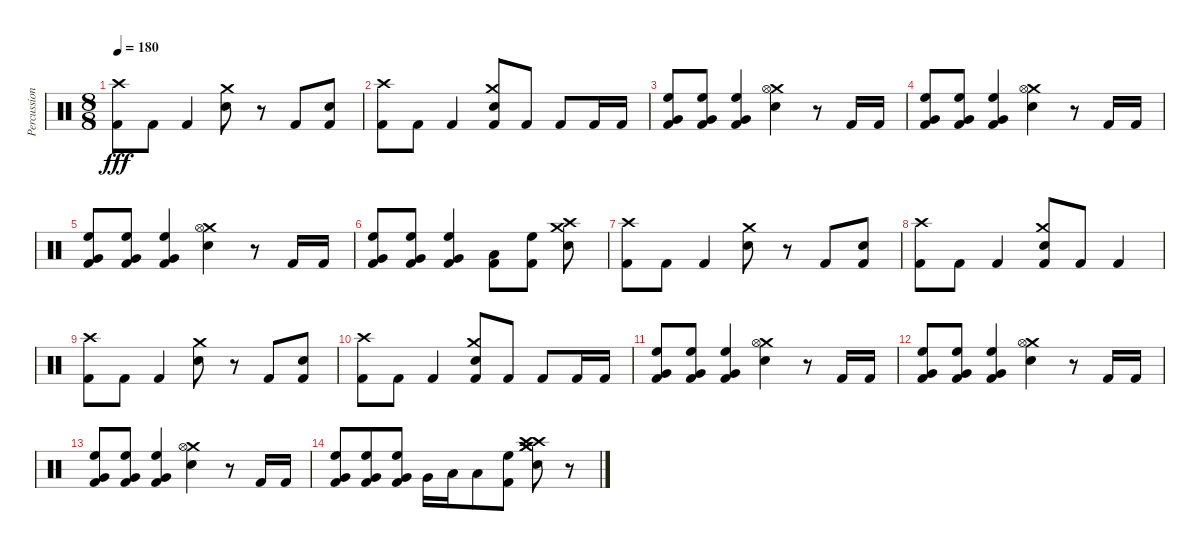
\track ("Percussion" "Percussion") {instrument percussion}
\staff {score}
\articulation defaults
\ts (8 8)
\tempo 180
\clef neutral
\ks c
("Crash high (hit)" "Kick (hit) 2").8{dy fff} "Kick (hit) 2".8 "Kick (hit) 2".4 ("Crash medium (hit)" "Snare (hit) 2").8 r.8 "Kick (hit) 2".8 ("Snare (hit) 2" "Kick (hit) 2").8 |
("Crash high (hit)" "Kick (hit) 2").8 "Kick (hit) 2".8 "Kick (hit) 2".4 ("Crash medium (hit)" "Snare (hit) 2" "Kick (hit) 2").8 "Kick (hit) 2".8 "Kick (hit) 2".8 "Kick (hit) 2".16 "Kick (hit) 2".16 |
("High Floor Tom (hit)" "Very Low Tom (hit)" "Kick (hit) 2").8 ("High Floor Tom (hit)" "Very Low Tom (hit)" "Kick (hit) 2").8 ("High Floor Tom (hit)" "Very Low Tom (hit)" "Kick (hit) 2").4 ("Crash medium (hit)" "Hi-Hat (open)" "Snare (hit) 2").4 r.8 "Kick (hit) 2".16 "Kick (hit) 2".16 |
("High Floor Tom (hit)" "Very Low Tom (hit)" "Kick (hit) 2").8 ("High Floor Tom (hit)" "Very Low Tom (hit)" "Kick (hit) 2").8 ("High Floor Tom (hit)" "Very Low Tom (hit)" "Kick (hit) 2").4 ("Crash medium (hit)" "Hi-Hat (open)" "Snare (hit) 2").4 r.8 "Kick (hit) 2".16 "Kick (hit) 2".16 |
("High Floor Tom (hit)" "Very Low Tom (hit)" "Kick (hit) 2").8 ("High Floor Tom (hit)" "Very Low Tom (hit)" "Kick (hit) 2").8 ("High Floor Tom (hit)" "Very Low Tom (hit)" "Kick (hit) 2").4 ("Crash medium (hit)" "Hi-Hat (open)" "Snare (hit) 2").4 r.8 "Kick (hit) 2".16 "Kick (hit) 2".16 |
("High Floor Tom (hit)" "Very Low Tom (hit)" "Kick (hit) 2").8 ("High Floor Tom (hit)" "Very Low Tom (hit)" "Kick (hit) 2").8 ("High Floor Tom (hit)" "Very Low Tom (hit)" "Kick (hit) 2").4 ("Low Tom (hit)" "Kick (hit) 2").8 ("High Floor Tom (hit)" "Kick (hit) 2").8 ("Crash medium (hit)" "Crash high (hit)" "Snare (hit) 2").8 |
("Crash high (hit)" "Kick (hit) 2").8 "Kick (hit) 2".8 "Kick (hit) 2".4 ("Crash medium (hit)" "Snare (hit) 2").8 r.8 "Kick (hit) 2".8 ("Snare (hit) 2" "Kick (hit) 2").8 |
("Crash high (hit)" "Kick (hit) 2").8 "Kick (hit) 2".8 "Kick (hit) 2".4 ("Crash medium (hit)" "Snare (hit) 2" "Kick (hit) 2").8 "Kick (hit) 2".8 "Kick (hit) 2".4 |
("Crash high (hit)" "Kick (hit) 2").8 "Kick (hit) 2".8 "Kick (hit) 2".4 ("Crash medium (hit)" "Snare (hit) 2").8 r.8 "Kick (hit) 2".8 ("Snare (hit) 2" "Kick (hit) 2").8 |
("Crash high (hit)" "Kick (hit) 2").8 "Kick (hit) 2".8 "Kick (hit) 2".4 ("Crash medium (hit)" "Snare (hit) 2" "Kick (hit) 2").8 "Kick (hit) 2".8 "Kick (hit) 2".8 "Kick (hit) 2".16 "Kick (hit) 2".16 |
("High Floor Tom (hit)" "Very Low Tom (hit)" "Kick (hit) 2").8 ("High Floor Tom (hit)" "Very Low Tom (hit)" "Kick (hit) 2").8 ("High Floor Tom (hit)" "Very Low Tom (hit)" "Kick (hit) 2").4 ("Crash medium (hit)" "Hi-Hat (open)" "Snare (hit) 2").4 r.8 "Kick (hit) 2".16 "Kick (hit) 2".16 |
("High Floor Tom (hit)" "Very Low Tom (hit)" "Kick (hit) 2").8 ("High Floor Tom (hit)" "Very Low Tom (hit)" "Kick (hit) 2").8 ("High Floor Tom (hit)" "Very Low Tom (hit)" "Kick (hit) 2").4 ("Crash medium (hit)" "Hi-Hat (open)" "Snare (hit) 2").4 r.8 "Kick (hit) 2".16 "Kick (hit) 2".16 |
("High Floor Tom (hit)" "Very Low Tom (hit)" "Kick (hit) 2").8 ("High Floor Tom (hit)" "Very Low Tom (hit)" "Kick (hit) 2").8 ("High Floor Tom (hit)" "Very Low Tom (hit)" "Kick (hit) 2").4 ("Crash medium (hit)" "Hi-Hat (open)" "Snare (hit) 2").4 r.8 "Kick (hit) 2".16 "Kick (hit) 2".16 |
("High Floor Tom (hit)" "Very Low Tom (hit)" "Kick (hit) 2").8 ("High Floor Tom (hit)" "Very Low Tom (hit)" "Kick (hit) 2").8 ("High Floor Tom (hit)" "Very Low Tom (hit)" "Kick (hit) 2").8 "Very Low Tom (hit)".16 "Low Tom (hit)".16 "Low Tom (hit)".8 ("High Floor Tom (hit)" "Kick (hit) 2").8 ("Crash medium (hit)" "Crash high (hit)" "Crash medium (hit)" "Crash high (hit)" "Snare (hit) 2").8 r.8
